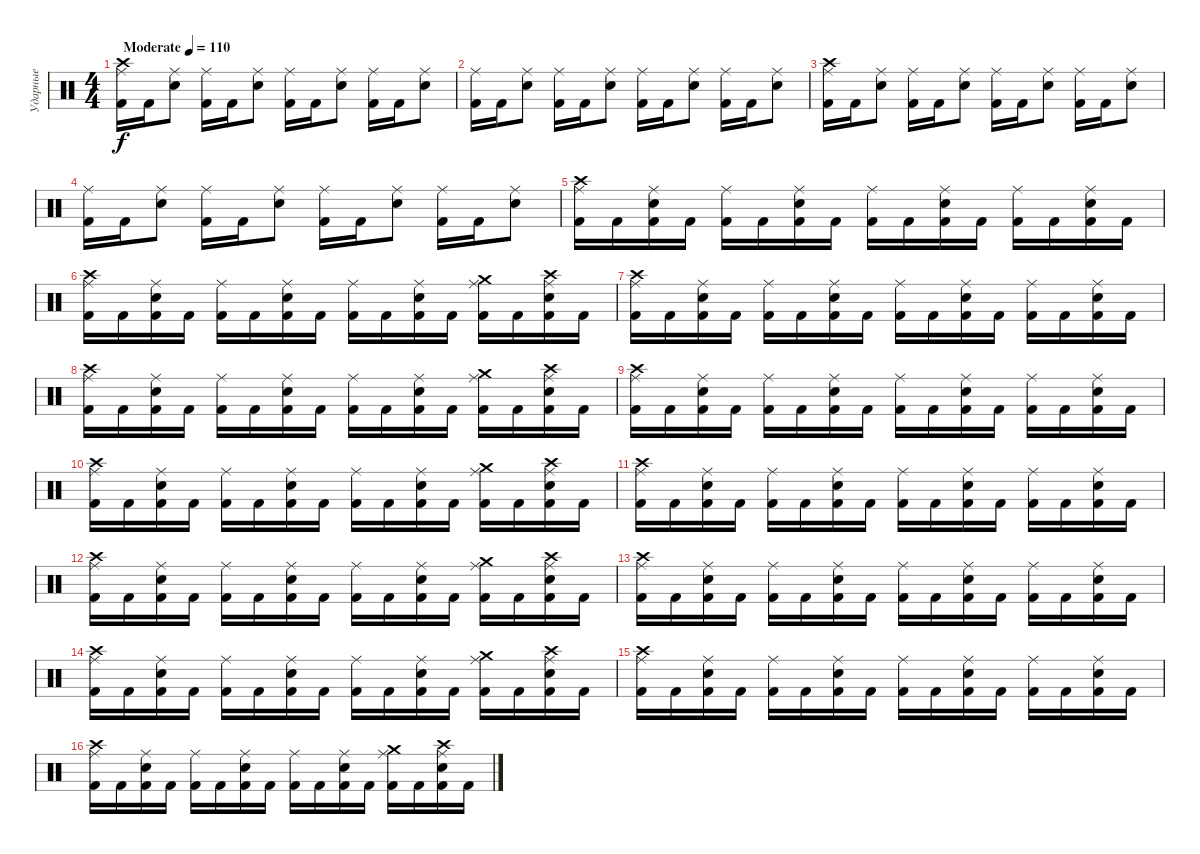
\track ("Ударные" "Ударные") {instrument percussion}
\staff
\articulation defaults
\ts (4 4)
\tempo (110 "Moderate")
\clef neutral
\ks c
("Kick (hit) 2" "Ride (middle)" "Crash high (hit)").16{dy f} "Kick (hit) 2".16 ("Snare (hit) 2" "Ride (middle)").8 ("Kick (hit) 2" "Ride (middle)").16 "Kick (hit) 2".16 ("Snare (hit) 2" "Ride (middle)").8 ("Kick (hit) 2" "Ride (middle)").16 "Kick (hit) 2".16 ("Snare (hit) 2" "Ride (middle)").8 ("Kick (hit) 2" "Ride (middle)").16 "Kick (hit) 2".16 ("Snare (hit) 2" "Ride (middle)").8 |
("Kick (hit) 2" "Ride (middle)").16 "Kick (hit) 2".16 ("Snare (hit) 2" "Ride (middle)").8 ("Kick (hit) 2" "Ride (middle)").16 "Kick (hit) 2".16 ("Snare (hit) 2" "Ride (middle)").8 ("Kick (hit) 2" "Ride (middle)").16 "Kick (hit) 2".16 ("Snare (hit) 2" "Ride (middle)").8 ("Kick (hit) 2" "Ride (middle)").16 "Kick (hit) 2".16 ("Snare (hit) 2" "Ride (middle)").8 |
("Kick (hit) 2" "Ride (middle)" "Crash high (hit)").16 "Kick (hit) 2".16 ("Snare (hit) 2" "Ride (middle)").8 ("Kick (hit) 2" "Ride (middle)").16 "Kick (hit) 2".16 ("Snare (hit) 2" "Ride (middle)").8 ("Kick (hit) 2" "Ride (middle)").16 "Kick (hit) 2".16 ("Snare (hit) 2" "Ride (middle)").8 ("Kick (hit) 2" "Ride (middle)").16 "Kick (hit) 2".16 ("Snare (hit) 2" "Ride (middle)").8 |
("Kick (hit) 2" "Ride (middle)").16 "Kick (hit) 2".16 ("Snare (hit) 2" "Ride (middle)").8 ("Kick (hit) 2" "Ride (middle)").16 "Kick (hit) 2".16 ("Snare (hit) 2" "Ride (middle)").8 ("Kick (hit) 2" "Ride (middle)").16 "Kick (hit) 2".16 ("Snare (hit) 2" "Ride (middle)").8 ("Kick (hit) 2" "Ride (middle)").16 "Kick (hit) 2".16 ("Snare (hit) 2" "Ride (middle)").8 |
("Ride (middle)" "Kick (hit) 2" "Crash high (hit)").16 "Kick (hit) 2".16 ("Ride (middle)" "Snare (hit) 2" "Kick (hit) 2").16 "Kick (hit) 2".16 ("Ride (middle)" "Kick (hit) 2").16 "Kick (hit) 2".16 ("Ride (middle)" "Snare (hit) 2" "Kick (hit) 2").16 "Kick (hit) 2".16 ("Ride (middle)" "Kick (hit) 2").16 "Kick (hit) 2".16 ("Ride (middle)" "Snare (hit) 2" "Kick (hit) 2").16 "Kick (hit) 2".16 ("Ride (middle)" "Kick (hit) 2").16 "Kick (hit) 2".16 ("Ride (middle)" "Snare (hit) 2" "Kick (hit) 2").16 "Kick (hit) 2".16 |
("Ride (middle)" "Kick (hit) 2" "Crash high (hit)").16 "Kick (hit) 2".16 ("Ride (middle)" "Snare (hit) 2" "Kick (hit) 2").16 "Kick (hit) 2".16 ("Ride (middle)" "Kick (hit) 2").16 "Kick (hit) 2".16 ("Ride (middle)" "Snare (hit) 2" "Kick (hit) 2").16 "Kick (hit) 2".16 ("Ride (middle)" "Kick (hit) 2").16 "Kick (hit) 2".16 ("Ride (middle)" "Snare (hit) 2" "Kick (hit) 2").16 "Kick (hit) 2".16 ("Ride (middle)" "Kick (hit) 2" "Crash medium (hit)").16 "Kick (hit) 2".16 ("Ride (middle)" "Snare (hit) 2" "Kick (hit) 2" "Crash high (hit)").16 "Kick (hit) 2".16 |
("Ride (middle)" "Kick (hit) 2" "Crash high (hit)").16 "Kick (hit) 2".16 ("Ride (middle)" "Snare (hit) 2" "Kick (hit) 2").16 "Kick (hit) 2".16 ("Ride (middle)" "Kick (hit) 2").16 "Kick (hit) 2".16 ("Ride (middle)" "Snare (hit) 2" "Kick (hit) 2").16 "Kick (hit) 2".16 ("Ride (middle)" "Kick (hit) 2").16 "Kick (hit) 2".16 ("Ride (middle)" "Snare (hit) 2" "Kick (hit) 2").16 "Kick (hit) 2".16 ("Ride (middle)" "Kick (hit) 2").16 "Kick (hit) 2".16 ("Ride (middle)" "Snare (hit) 2" "Kick (hit) 2").16 "Kick (hit) 2".16 |
("Ride (middle)" "Kick (hit) 2" "Crash high (hit)").16 "Kick (hit) 2".16 ("Ride (middle)" "Snare (hit) 2" "Kick (hit) 2").16 "Kick (hit) 2".16 ("Ride (middle)" "Kick (hit) 2").16 "Kick (hit) 2".16 ("Ride (middle)" "Snare (hit) 2" "Kick (hit) 2").16 "Kick (hit) 2".16 ("Ride (middle)" "Kick (hit) 2").16 "Kick (hit) 2".16 ("Ride (middle)" "Snare (hit) 2" "Kick (hit) 2").16 "Kick (hit) 2".16 ("Ride (middle)" "Kick (hit) 2" "Crash medium (hit)").16 "Kick (hit) 2".16 ("Ride (middle)" "Snare (hit) 2" "Kick (hit) 2" "Crash high (hit)").16 "Kick (hit) 2".16 |
("Ride (middle)" "Kick (hit) 2" "Crash high (hit)").16 "Kick (hit) 2".16 ("Ride (middle)" "Snare (hit) 2" "Kick (hit) 2").16 "Kick (hit) 2".16 ("Ride (middle)" "Kick (hit) 2").16 "Kick (hit) 2".16 ("Ride (middle)" "Snare (hit) 2" "Kick (hit) 2").16 "Kick (hit) 2".16 ("Ride (middle)" "Kick (hit) 2").16 "Kick (hit) 2".16 ("Ride (middle)" "Snare (hit) 2" "Kick (hit) 2").16 "Kick (hit) 2".16 ("Ride (middle)" "Kick (hit) 2").16 "Kick (hit) 2".16 ("Ride (middle)" "Snare (hit) 2" "Kick (hit) 2").16 "Kick (hit) 2".16 |
("Ride (middle)" "Kick (hit) 2" "Crash high (hit)").16 "Kick (hit) 2".16 ("Ride (middle)" "Snare (hit) 2" "Kick (hit) 2").16 "Kick (hit) 2".16 ("Ride (middle)" "Kick (hit) 2").16 "Kick (hit) 2".16 ("Ride (middle)" "Snare (hit) 2" "Kick (hit) 2").16 "Kick (hit) 2".16 ("Ride (middle)" "Kick (hit) 2").16 "Kick (hit) 2".16 ("Ride (middle)" "Snare (hit) 2" "Kick (hit) 2").16 "Kick (hit) 2".16 ("Ride (middle)" "Kick (hit) 2" "Crash medium (hit)").16 "Kick (hit) 2".16 ("Ride (middle)" "Snare (hit) 2" "Kick (hit) 2" "Crash high (hit)").16 "Kick (hit) 2".16 |
("Ride (middle)" "Kick (hit) 2" "Crash high (hit)").16 "Kick (hit) 2".16 ("Ride (middle)" "Snare (hit) 2" "Kick (hit) 2").16 "Kick (hit) 2".16 ("Ride (middle)" "Kick (hit) 2").16 "Kick (hit) 2".16 ("Ride (middle)" "Snare (hit) 2" "Kick (hit) 2").16 "Kick (hit) 2".16 ("Ride (middle)" "Kick (hit) 2").16 "Kick (hit) 2".16 ("Ride (middle)" "Snare (hit) 2" "Kick (hit) 2").16 "Kick (hit) 2".16 ("Ride (middle)" "Kick (hit) 2").16 "Kick (hit) 2".16 ("Ride (middle)" "Snare (hit) 2" "Kick (hit) 2").16 "Kick (hit) 2".16 |
("Ride (middle)" "Kick (hit) 2" "Crash high (hit)").16 "Kick (hit) 2".16 ("Ride (middle)" "Snare (hit) 2" "Kick (hit) 2").16 "Kick (hit) 2".16 ("Ride (middle)" "Kick (hit) 2").16 "Kick (hit) 2".16 ("Ride (middle)" "Snare (hit) 2" "Kick (hit) 2").16 "Kick (hit) 2".16 ("Ride (middle)" "Kick (hit) 2").16 "Kick (hit) 2".16 ("Ride (middle)" "Snare (hit) 2" "Kick (hit) 2").16 "Kick (hit) 2".16 ("Ride (middle)" "Kick (hit) 2" "Crash medium (hit)").16 "Kick (hit) 2".16 ("Ride (middle)" "Snare (hit) 2" "Kick (hit) 2" "Crash high (hit)").16 "Kick (hit) 2".16 |
("Ride (middle)" "Kick (hit) 2" "Crash high (hit)").16 "Kick (hit) 2".16 ("Ride (middle)" "Snare (hit) 2" "Kick (hit) 2").16 "Kick (hit) 2".16 ("Ride (middle)" "Kick (hit) 2").16 "Kick (hit) 2".16 ("Ride (middle)" "Snare (hit) 2" "Kick (hit) 2").16 "Kick (hit) 2".16 ("Ride (middle)" "Kick (hit) 2").16 "Kick (hit) 2".16 ("Ride (middle)" "Snare (hit) 2" "Kick (hit) 2").16 "Kick (hit) 2".16 ("Ride (middle)" "Kick (hit) 2").16 "Kick (hit) 2".16 ("Ride (middle)" "Snare (hit) 2" "Kick (hit) 2").16 "Kick (hit) 2".16 |
("Ride (middle)" "Kick (hit) 2" "Crash high (hit)").16 "Kick (hit) 2".16 ("Ride (middle)" "Snare (hit) 2" "Kick (hit) 2").16 "Kick (hit) 2".16 ("Ride (middle)" "Kick (hit) 2").16 "Kick (hit) 2".16 ("Ride (middle)" "Snare (hit) 2" "Kick (hit) 2").16 "Kick (hit) 2".16 ("Ride (middle)" "Kick (hit) 2").16 "Kick (hit) 2".16 ("Ride (middle)" "Snare (hit) 2" "Kick (hit) 2").16 "Kick (hit) 2".16 ("Ride (middle)" "Kick (hit) 2" "Crash medium (hit)").16 "Kick (hit) 2".16 ("Ride (middle)" "Snare (hit) 2" "Kick (hit) 2" "Crash high (hit)").16 "Kick (hit) 2".16 |
("Ride (middle)" "Kick (hit) 2" "Crash high (hit)").16 "Kick (hit) 2".16 ("Ride (middle)" "Snare (hit) 2" "Kick (hit) 2").16 "Kick (hit) 2".16 ("Ride (middle)" "Kick (hit) 2").16 "Kick (hit) 2".16 ("Ride (middle)" "Snare (hit) 2" "Kick (hit) 2").16 "Kick (hit) 2".16 ("Ride (middle)" "Kick (hit) 2").16 "Kick (hit) 2".16 ("Ride (middle)" "Snare (hit) 2" "Kick (hit) 2").16 "Kick (hit) 2".16 ("Ride (middle)" "Kick (hit) 2").16 "Kick (hit) 2".16 ("Ride (middle)" "Snare (hit) 2" "Kick (hit) 2").16 "Kick (hit) 2".16 |
("Ride (middle)" "Kick (hit) 2" "Crash high (hit)").16 "Kick (hit) 2".16 ("Ride (middle)" "Snare (hit) 2" "Kick (hit) 2").16 "Kick (hit) 2".16 ("Ride (middle)" "Kick (hit) 2").16 "Kick (hit) 2".16 ("Ride (middle)" "Snare (hit) 2" "Kick (hit) 2").16 "Kick (hit) 2".16 ("Ride (middle)" "Kick (hit) 2").16 "Kick (hit) 2".16 ("Ride (middle)" "Snare (hit) 2" "Kick (hit) 2").16 "Kick (hit) 2".16 ("Ride (middle)" "Kick (hit) 2" "Crash medium (hit)").16 "Kick (hit) 2".16 ("Ride (middle)" "Snare (hit) 2" "Kick (hit) 2" "Crash high (hit)").16 "Kick (hit) 2".16
